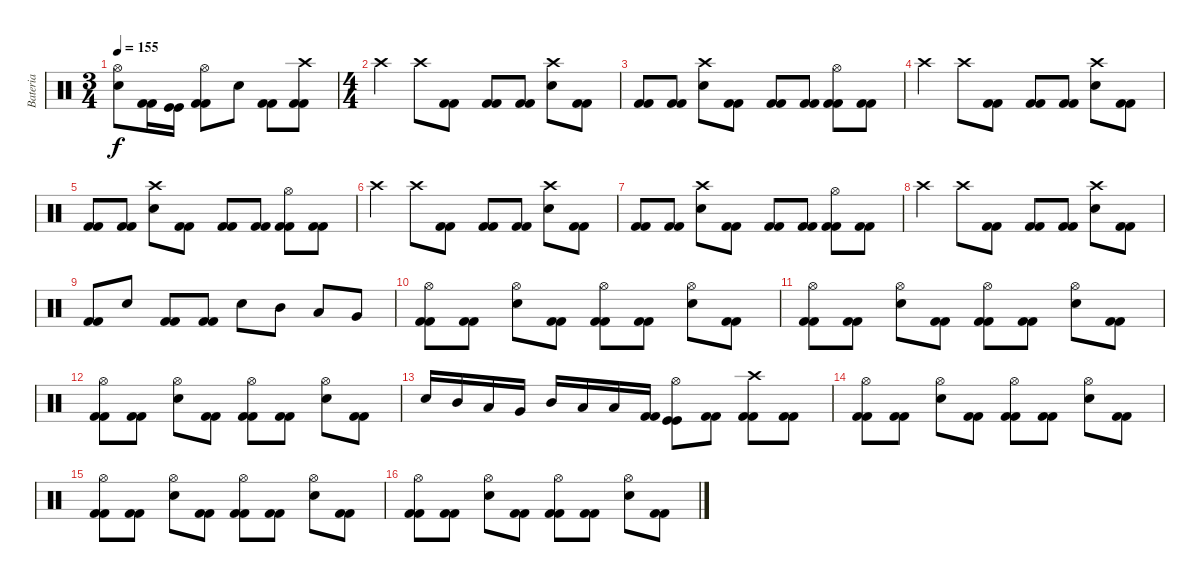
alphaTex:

\track ("Bateria" "Bateria") {instrument percussion}
\staff {score}
\articulation defaults
\ts (3 4)
\tempo 155
\clef neutral
\ks c
("Snare (hit) 2" "Hi-Hat (open)").8{dy f} ("Kick (hit) 2" "Kick (hit) 2").16 ("Kick (hit)" "Kick (hit)").16 ("Kick (hit) 2" "Kick (hit) 2" "Hi-Hat (open)").8 "Snare (hit) 2".8 ("Kick (hit) 2" "Kick (hit) 2").8 ("Kick (hit) 2" "Kick (hit) 2" "Crash high (hit)").8 |
\ts (4 4)
"Crash high (hit)".4 "Crash high (hit)".8 ("Kick (hit) 2" "Kick (hit) 2").8 ("Kick (hit) 2" "Kick (hit) 2").8 ("Kick (hit) 2" "Kick (hit) 2").8 ("Snare (hit) 2" "Crash high (hit)").8 ("Kick (hit) 2" "Kick (hit) 2").8 |
("Kick (hit) 2" "Kick (hit) 2").8 ("Kick (hit) 2" "Kick (hit) 2").8 ("Snare (hit) 2" "Crash high (hit)").8 ("Kick (hit) 2" "Kick (hit) 2").8 ("Kick (hit) 2" "Kick (hit) 2").8 ("Kick (hit) 2" "Kick (hit) 2").8 ("Kick (hit) 2" "Kick (hit) 2" "Hi-Hat (open)").8 ("Kick (hit) 2" "Kick (hit) 2").8 |
"Crash high (hit)".4 "Crash high (hit)".8 ("Kick (hit) 2" "Kick (hit) 2").8 ("Kick (hit) 2" "Kick (hit) 2").8 ("Kick (hit) 2" "Kick (hit) 2").8 ("Snare (hit) 2" "Crash high (hit)").8 ("Kick (hit) 2" "Kick (hit) 2").8 |
("Kick (hit) 2" "Kick (hit) 2").8 ("Kick (hit) 2" "Kick (hit) 2").8 ("Snare (hit) 2" "Crash high (hit)").8 ("Kick (hit) 2" "Kick (hit) 2").8 ("Kick (hit) 2" "Kick (hit) 2").8 ("Kick (hit) 2" "Kick (hit) 2").8 ("Kick (hit) 2" "Kick (hit) 2" "Hi-Hat (open)").8 ("Kick (hit) 2" "Kick (hit) 2").8 |
"Crash high (hit)".4 "Crash high (hit)".8 ("Kick (hit) 2" "Kick (hit) 2").8 ("Kick (hit) 2" "Kick (hit) 2").8 ("Kick (hit) 2" "Kick (hit) 2").8 ("Snare (hit) 2" "Crash high (hit)").8 ("Kick (hit) 2" "Kick (hit) 2").8 |
("Kick (hit) 2" "Kick (hit) 2").8 ("Kick (hit) 2" "Kick (hit) 2").8 ("Snare (hit) 2" "Crash high (hit)").8 ("Kick (hit) 2" "Kick (hit) 2").8 ("Kick (hit) 2" "Kick (hit) 2").8 ("Kick (hit) 2" "Kick (hit) 2").8 ("Kick (hit) 2" "Kick (hit) 2" "Hi-Hat (open)").8 ("Kick (hit) 2" "Kick (hit) 2").8 |
"Crash high (hit)".4 "Crash high (hit)".8 ("Kick (hit) 2" "Kick (hit) 2").8 ("Kick (hit) 2" "Kick (hit) 2").8 ("Kick (hit) 2" "Kick (hit) 2").8 ("Snare (hit) 2" "Crash high (hit)").8 ("Kick (hit) 2" "Kick (hit) 2").8 |
("Kick (hit) 2" "Kick (hit) 2").8 "Snare (hit) 2".8 ("Kick (hit) 2" "Kick (hit) 2").8 ("Kick (hit) 2" "Kick (hit) 2").8 "Snare (hit) 2".8 "Mid Tom (hit)".8 "Low Tom (hit)".8 "Very Low Tom (hit)".8 |
("Kick (hit) 2" "Kick (hit) 2" "Hi-Hat (open)").8 ("Kick (hit) 2" "Kick (hit) 2").8 ("Snare (hit) 2" "Hi-Hat (open)").8 ("Kick (hit) 2" "Kick (hit) 2").8 ("Kick (hit) 2" "Kick (hit) 2" "Hi-Hat (open)").8 ("Kick (hit) 2" "Kick (hit) 2").8 ("Snare (hit) 2" "Hi-Hat (open)").8 ("Kick (hit) 2" "Kick (hit) 2").8 |
("Kick (hit) 2" "Kick (hit) 2" "Hi-Hat (open)").8 ("Kick (hit) 2" "Kick (hit) 2").8 ("Snare (hit) 2" "Hi-Hat (open)").8 ("Kick (hit) 2" "Kick (hit) 2").8 ("Kick (hit) 2" "Kick (hit) 2" "Hi-Hat (open)").8 ("Kick (hit) 2" "Kick (hit) 2").8 ("Snare (hit) 2" "Hi-Hat (open)").8 ("Kick (hit) 2" "Kick (hit) 2").8 |
("Kick (hit) 2" "Kick (hit) 2" "Hi-Hat (open)").8 ("Kick (hit) 2" "Kick (hit) 2").8 ("Snare (hit) 2" "Hi-Hat (open)").8 ("Kick (hit) 2" "Kick (hit) 2").8 ("Kick (hit) 2" "Kick (hit) 2" "Hi-Hat (open)").8 ("Kick (hit) 2" "Kick (hit) 2").8 ("Snare (hit) 2" "Hi-Hat (open)").8 ("Kick (hit) 2" "Kick (hit) 2").8 |
"Snare (hit) 2".16 "Mid Tom (hit)".16 "Low Tom (hit)".16 "Very Low Tom (hit)".16 "Mid Tom (hit)".16 "Low Tom (hit)".16 "Low Floor Tom (hit)".16 ("Kick (hit) 2" "Kick (hit) 2").16 ("Kick (hit)" "Kick (hit)" "Hi-Hat (open)").8 ("Kick (hit) 2" "Kick (hit) 2").8 ("Kick (hit) 2" "Kick (hit) 2" "Crash high (hit)").8 ("Kick (hit) 2" "Kick (hit) 2").8 |
("Kick (hit) 2" "Kick (hit) 2" "Hi-Hat (open)").8 ("Kick (hit) 2" "Kick (hit) 2").8 ("Snare (hit) 2" "Hi-Hat (open)").8 ("Kick (hit) 2" "Kick (hit) 2").8 ("Kick (hit) 2" "Kick (hit) 2" "Hi-Hat (open)").8 ("Kick (hit) 2" "Kick (hit) 2").8 ("Snare (hit) 2" "Hi-Hat (open)").8 ("Kick (hit) 2" "Kick (hit) 2").8 |
("Kick (hit) 2" "Kick (hit) 2" "Hi-Hat (open)").8 ("Kick (hit) 2" "Kick (hit) 2").8 ("Snare (hit) 2" "Hi-Hat (open)").8 ("Kick (hit) 2" "Kick (hit) 2").8 ("Kick (hit) 2" "Kick (hit) 2" "Hi-Hat (open)").8 ("Kick (hit) 2" "Kick (hit) 2").8 ("Snare (hit) 2" "Hi-Hat (open)").8 ("Kick (hit) 2" "Kick (hit) 2").8 |
("Kick (hit) 2" "Kick (hit) 2" "Hi-Hat (open)").8 ("Kick (hit) 2" "Kick (hit) 2").8 ("Snare (hit) 2" "Hi-Hat (open)").8 ("Kick (hit) 2" "Kick (hit) 2").8 ("Kick (hit) 2" "Kick (hit) 2" "Hi-Hat (open)").8 ("Kick (hit) 2" "Kick (hit) 2").8 ("Snare (hit) 2" "Hi-Hat (open)").8 ("Kick (hit) 2" "Kick (hit) 2").8
